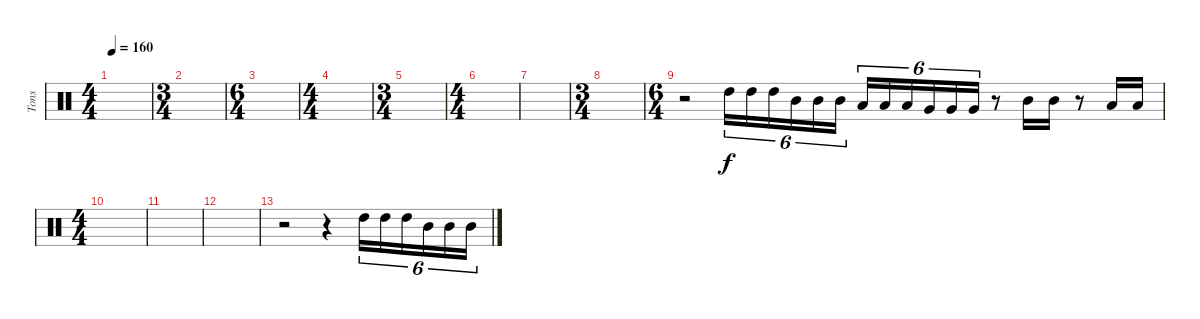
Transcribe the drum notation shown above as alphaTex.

\track ("Tons" "Tons") {instrument percussion}
\staff {score}
\articulation defaults
\ts (4 4)
\tempo 160
\clef neutral
\ks c
|
\ts (3 4)
|
\ts (6 4)
|
\ts (4 4)
|
\ts (3 4)
|
\ts (4 4)
|
|
\ts (3 4)
|
\ts (6 4)
r.2 "High Tom (hit)".16{tu (6 4)} "High Tom (hit)".16{tu (6 4)} "High Tom (hit)".16{tu (6 4)} "Mid Tom (hit)".16{tu (6 4)} "Mid Tom (hit)".16{tu (6 4)} "Mid Tom (hit)".16{tu (6 4)} "Low Tom (hit)".16{tu (6 4)} "Low Tom (hit)".16{tu (6 4)} "Low Tom (hit)".16{tu (6 4)} "Very Low Tom (hit)".16{tu (6 4)} "Very Low Tom (hit)".16{tu (6 4)} "Very Low Tom (hit)".16{tu (6 4)} r.8 "Mid Tom (hit)".16 "Mid Tom (hit)".16 r.8 "Low Tom (hit)".16 "Low Tom (hit)".16 |
\ts (4 4)
|
|
|
r.2 r.4 "High Tom (hit)".16{tu (6 4)} "High Tom (hit)".16{tu (6 4)} "High Tom (hit)".16{tu (6 4)} "Mid Tom (hit)".16{tu (6 4)} "Mid Tom (hit)".16{tu (6 4)} "Mid Tom (hit)".16{tu (6 4)}
